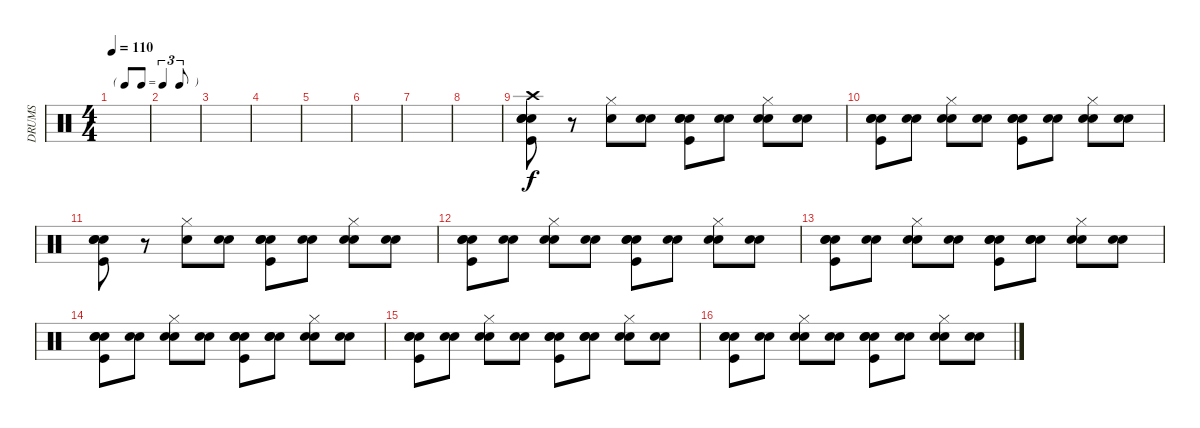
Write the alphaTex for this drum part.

\track ("DRUMS" "DRUMS") {instrument percussion}
\staff {score}
\articulation defaults
\ts (4 4)
\tf triplet8th
\tempo 110
\clef neutral
\ks c
|
|
|
|
|
|
|
|
("Snare (hit)" "Kick (hit)" "Snare (hit) 2" "Electric Snare (hit)" "Crash high (hit)").8 r.8 ("Snare (hit) 2" "Hi-Hat (closed)").8 ("Snare (hit)" "Snare (hit) 2").8 ("Snare (hit)" "Kick (hit)" "Snare (hit) 2" "Electric Snare (hit)").8 ("Snare (hit)" "Electric Snare (hit)").8 ("Snare (hit)" "Snare (hit) 2" "Hi-Hat (closed)").8 ("Snare (hit)" "Snare (hit) 2").8 |
("Snare (hit)" "Kick (hit)" "Snare (hit) 2" "Electric Snare (hit)").8 ("Snare (hit)" "Electric Snare (hit)").8 ("Snare (hit)" "Snare (hit) 2" "Hi-Hat (closed)").8 ("Snare (hit)" "Snare (hit) 2").8 ("Snare (hit)" "Kick (hit)" "Snare (hit) 2" "Electric Snare (hit)").8 ("Snare (hit)" "Electric Snare (hit)").8 ("Snare (hit)" "Snare (hit) 2" "Hi-Hat (closed)").8 ("Snare (hit)" "Snare (hit) 2").8 |
("Snare (hit)" "Kick (hit)" "Snare (hit) 2" "Electric Snare (hit)").8 r.8 ("Snare (hit) 2" "Hi-Hat (closed)").8 ("Snare (hit)" "Snare (hit) 2").8 ("Snare (hit)" "Kick (hit)" "Snare (hit) 2" "Electric Snare (hit)").8 ("Snare (hit)" "Electric Snare (hit)").8 ("Snare (hit)" "Snare (hit) 2" "Hi-Hat (closed)").8 ("Snare (hit)" "Snare (hit) 2").8 |
("Snare (hit)" "Kick (hit)" "Snare (hit) 2" "Electric Snare (hit)").8 ("Snare (hit)" "Electric Snare (hit)").8 ("Snare (hit)" "Snare (hit) 2" "Hi-Hat (closed)").8 ("Snare (hit)" "Snare (hit) 2").8 ("Snare (hit)" "Kick (hit)" "Snare (hit) 2" "Electric Snare (hit)").8 ("Snare (hit)" "Electric Snare (hit)").8 ("Snare (hit)" "Snare (hit) 2" "Hi-Hat (closed)").8 ("Snare (hit)" "Snare (hit) 2").8 |
("Snare (hit)" "Kick (hit)" "Snare (hit) 2" "Electric Snare (hit)").8 ("Snare (hit)" "Electric Snare (hit)").8 ("Snare (hit)" "Snare (hit) 2" "Hi-Hat (closed)").8 ("Snare (hit)" "Snare (hit) 2").8 ("Snare (hit)" "Kick (hit)" "Snare (hit) 2" "Electric Snare (hit)").8 ("Snare (hit)" "Snare (hit) 2" "Electric Snare (hit)").8 ("Snare (hit)" "Snare (hit) 2" "Hi-Hat (closed)").8 ("Snare (hit)" "Snare (hit) 2").8 |
("Snare (hit)" "Kick (hit)" "Snare (hit) 2" "Electric Snare (hit)").8 ("Snare (hit)" "Electric Snare (hit)").8 ("Snare (hit)" "Snare (hit) 2" "Hi-Hat (closed)").8 ("Snare (hit)" "Snare (hit) 2").8 ("Snare (hit)" "Kick (hit)" "Snare (hit) 2" "Electric Snare (hit)").8 ("Snare (hit)" "Snare (hit) 2" "Electric Snare (hit)").8 ("Snare (hit)" "Snare (hit) 2" "Hi-Hat (closed)").8 ("Snare (hit)" "Snare (hit) 2").8 |
("Snare (hit)" "Kick (hit)" "Snare (hit) 2" "Electric Snare (hit)").8 ("Snare (hit)" "Electric Snare (hit)").8 ("Snare (hit)" "Snare (hit) 2" "Hi-Hat (closed)").8 ("Snare (hit)" "Snare (hit) 2").8 ("Snare (hit)" "Kick (hit)" "Snare (hit) 2" "Electric Snare (hit)").8 ("Snare (hit)" "Snare (hit) 2" "Electric Snare (hit)").8 ("Snare (hit)" "Snare (hit) 2" "Hi-Hat (closed)").8 ("Snare (hit)" "Snare (hit) 2").8 |
("Snare (hit)" "Kick (hit)" "Snare (hit) 2" "Electric Snare (hit)").8 ("Snare (hit)" "Electric Snare (hit)").8 ("Snare (hit)" "Snare (hit) 2" "Hi-Hat (closed)").8 ("Snare (hit)" "Snare (hit) 2").8 ("Snare (hit)" "Kick (hit)" "Snare (hit) 2" "Electric Snare (hit)").8 ("Snare (hit)" "Electric Snare (hit)").8 ("Snare (hit)" "Snare (hit) 2" "Hi-Hat (closed)").8 ("Snare (hit)" "Snare (hit) 2").8
